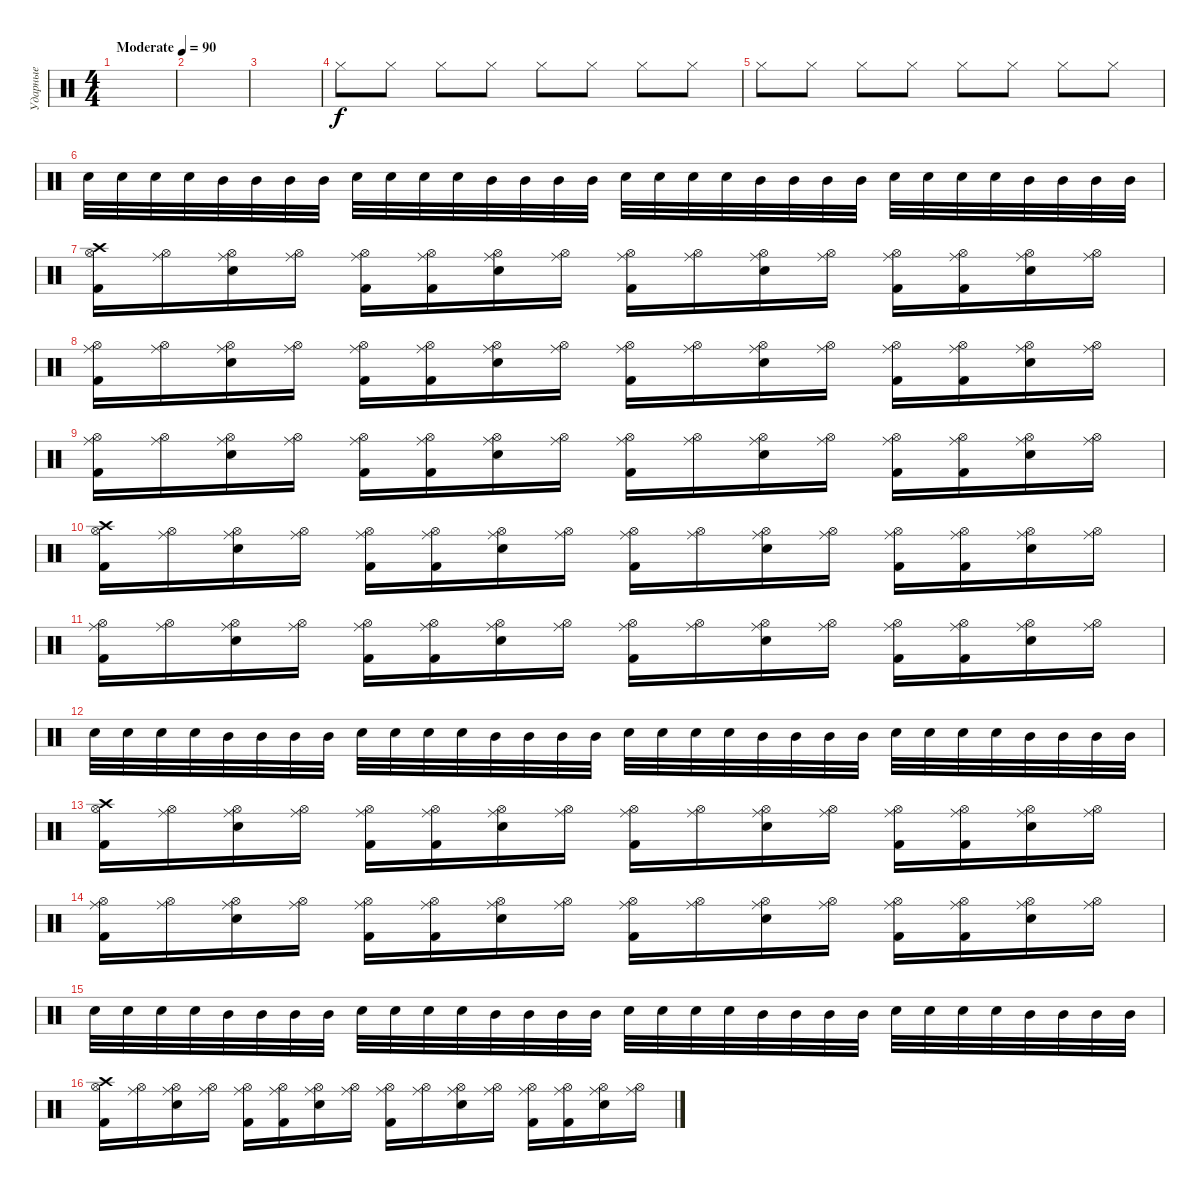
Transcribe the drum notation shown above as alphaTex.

\track ("Ударные" "Ударные") {instrument percussion}
\staff {score}
\articulation defaults
\ts (4 4)
\tempo (90 "Moderate")
\clef neutral
\ks c
|
|
|
"Hi-Hat (closed)".8 "Hi-Hat (closed)".8 "Hi-Hat (closed)".8 "Hi-Hat (closed)".8 "Hi-Hat (closed)".8 "Hi-Hat (closed)".8 "Hi-Hat (closed)".8 "Hi-Hat (closed)".8 |
"Hi-Hat (closed)".8 "Hi-Hat (closed)".8 "Hi-Hat (closed)".8 "Hi-Hat (closed)".8 "Hi-Hat (closed)".8 "Hi-Hat (closed)".8 "Hi-Hat (closed)".8 "Hi-Hat (closed)".8 |
"Electric Snare (hit)".32 "Electric Snare (hit)".32 "Electric Snare (hit)".32 "Electric Snare (hit)".32 "Mid Tom (hit)".32 "Mid Tom (hit)".32 "Mid Tom (hit)".32 "Mid Tom (hit)".32 "Electric Snare (hit)".32 "Electric Snare (hit)".32 "Electric Snare (hit)".32 "Electric Snare (hit)".32 "Mid Tom (hit)".32 "Mid Tom (hit)".32 "Mid Tom (hit)".32 "Mid Tom (hit)".32 "Electric Snare (hit)".32 "Electric Snare (hit)".32 "Electric Snare (hit)".32 "Electric Snare (hit)".32 "Mid Tom (hit)".32 "Mid Tom (hit)".32 "Mid Tom (hit)".32 "Mid Tom (hit)".32 "Electric Snare (hit)".32 "Electric Snare (hit)".32 "Electric Snare (hit)".32 "Electric Snare (hit)".32 "Mid Tom (hit)".32 "Mid Tom (hit)".32 "Mid Tom (hit)".32 "Mid Tom (hit)".32 |
("Kick (hit) 2" "Crash high (hit)" "Hi-Hat (open)").16 ("Ride (middle)" "Hi-Hat (open)").16 ("Electric Snare (hit)" "Ride (middle)" "Hi-Hat (open)").16 ("Ride (middle)" "Hi-Hat (open)").16 ("Kick (hit) 2" "Ride (middle)" "Hi-Hat (open)").16 ("Kick (hit) 2" "Ride (middle)" "Hi-Hat (open)").16 ("Electric Snare (hit)" "Ride (middle)" "Hi-Hat (open)").16 ("Ride (middle)" "Hi-Hat (open)").16 ("Kick (hit) 2" "Ride (middle)" "Hi-Hat (open)").16 ("Ride (middle)" "Hi-Hat (open)").16 ("Electric Snare (hit)" "Ride (middle)" "Hi-Hat (open)").16 ("Ride (middle)" "Hi-Hat (open)").16 ("Kick (hit) 2" "Ride (middle)" "Hi-Hat (open)").16 ("Kick (hit) 2" "Ride (middle)" "Hi-Hat (open)").16 ("Electric Snare (hit)" "Ride (middle)" "Hi-Hat (open)").16 ("Ride (middle)" "Hi-Hat (open)").16 |
("Kick (hit) 2" "Ride (middle)" "Hi-Hat (open)").16 ("Ride (middle)" "Hi-Hat (open)").16 ("Electric Snare (hit)" "Ride (middle)" "Hi-Hat (open)").16 ("Ride (middle)" "Hi-Hat (open)").16 ("Kick (hit) 2" "Ride (middle)" "Hi-Hat (open)").16 ("Kick (hit) 2" "Ride (middle)" "Hi-Hat (open)").16 ("Electric Snare (hit)" "Ride (middle)" "Hi-Hat (open)").16 ("Ride (middle)" "Hi-Hat (open)").16 ("Kick (hit) 2" "Ride (middle)" "Hi-Hat (open)").16 ("Ride (middle)" "Hi-Hat (open)").16 ("Electric Snare (hit)" "Ride (middle)" "Hi-Hat (open)").16 ("Ride (middle)" "Hi-Hat (open)").16 ("Kick (hit) 2" "Ride (middle)" "Hi-Hat (open)").16 ("Kick (hit) 2" "Ride (middle)" "Hi-Hat (open)").16 ("Electric Snare (hit)" "Ride (middle)" "Hi-Hat (open)").16 ("Ride (middle)" "Hi-Hat (open)").16 |
("Kick (hit) 2" "Ride (middle)" "Hi-Hat (open)").16 ("Ride (middle)" "Hi-Hat (open)").16 ("Electric Snare (hit)" "Ride (middle)" "Hi-Hat (open)").16 ("Ride (middle)" "Hi-Hat (open)").16 ("Kick (hit) 2" "Ride (middle)" "Hi-Hat (open)").16 ("Kick (hit) 2" "Ride (middle)" "Hi-Hat (open)").16 ("Electric Snare (hit)" "Ride (middle)" "Hi-Hat (open)").16 ("Ride (middle)" "Hi-Hat (open)").16 ("Kick (hit) 2" "Ride (middle)" "Hi-Hat (open)").16 ("Ride (middle)" "Hi-Hat (open)").16 ("Electric Snare (hit)" "Ride (middle)" "Hi-Hat (open)").16 ("Ride (middle)" "Hi-Hat (open)").16 ("Kick (hit) 2" "Ride (middle)" "Hi-Hat (open)").16 ("Kick (hit) 2" "Ride (middle)" "Hi-Hat (open)").16 ("Electric Snare (hit)" "Ride (middle)" "Hi-Hat (open)").16 ("Ride (middle)" "Hi-Hat (open)").16 |
("Kick (hit) 2" "Crash high (hit)" "Hi-Hat (open)").16 ("Ride (middle)" "Hi-Hat (open)").16 ("Electric Snare (hit)" "Ride (middle)" "Hi-Hat (open)").16 ("Ride (middle)" "Hi-Hat (open)").16 ("Kick (hit) 2" "Ride (middle)" "Hi-Hat (open)").16 ("Kick (hit) 2" "Ride (middle)" "Hi-Hat (open)").16 ("Electric Snare (hit)" "Ride (middle)" "Hi-Hat (open)").16 ("Ride (middle)" "Hi-Hat (open)").16 ("Kick (hit) 2" "Ride (middle)" "Hi-Hat (open)").16 ("Ride (middle)" "Hi-Hat (open)").16 ("Electric Snare (hit)" "Ride (middle)" "Hi-Hat (open)").16 ("Ride (middle)" "Hi-Hat (open)").16 ("Kick (hit) 2" "Ride (middle)" "Hi-Hat (open)").16 ("Kick (hit) 2" "Ride (middle)" "Hi-Hat (open)").16 ("Electric Snare (hit)" "Ride (middle)" "Hi-Hat (open)").16 ("Ride (middle)" "Hi-Hat (open)").16 |
("Kick (hit) 2" "Ride (middle)" "Hi-Hat (open)").16 ("Ride (middle)" "Hi-Hat (open)").16 ("Electric Snare (hit)" "Ride (middle)" "Hi-Hat (open)").16 ("Ride (middle)" "Hi-Hat (open)").16 ("Kick (hit) 2" "Ride (middle)" "Hi-Hat (open)").16 ("Kick (hit) 2" "Ride (middle)" "Hi-Hat (open)").16 ("Electric Snare (hit)" "Ride (middle)" "Hi-Hat (open)").16 ("Ride (middle)" "Hi-Hat (open)").16 ("Kick (hit) 2" "Ride (middle)" "Hi-Hat (open)").16 ("Ride (middle)" "Hi-Hat (open)").16 ("Electric Snare (hit)" "Ride (middle)" "Hi-Hat (open)").16 ("Ride (middle)" "Hi-Hat (open)").16 ("Kick (hit) 2" "Ride (middle)" "Hi-Hat (open)").16 ("Kick (hit) 2" "Ride (middle)" "Hi-Hat (open)").16 ("Electric Snare (hit)" "Ride (middle)" "Hi-Hat (open)").16 ("Ride (middle)" "Hi-Hat (open)").16 |
"Electric Snare (hit)".32 "Electric Snare (hit)".32 "Electric Snare (hit)".32 "Electric Snare (hit)".32 "Mid Tom (hit)".32 "Mid Tom (hit)".32 "Mid Tom (hit)".32 "Mid Tom (hit)".32 "Electric Snare (hit)".32 "Electric Snare (hit)".32 "Electric Snare (hit)".32 "Electric Snare (hit)".32 "Mid Tom (hit)".32 "Mid Tom (hit)".32 "Mid Tom (hit)".32 "Mid Tom (hit)".32 "Electric Snare (hit)".32 "Electric Snare (hit)".32 "Electric Snare (hit)".32 "Electric Snare (hit)".32 "Mid Tom (hit)".32 "Mid Tom (hit)".32 "Mid Tom (hit)".32 "Mid Tom (hit)".32 "Electric Snare (hit)".32 "Electric Snare (hit)".32 "Electric Snare (hit)".32 "Electric Snare (hit)".32 "Mid Tom (hit)".32 "Mid Tom (hit)".32 "Mid Tom (hit)".32 "Mid Tom (hit)".32 |
("Kick (hit) 2" "Crash high (hit)" "Hi-Hat (open)").16 ("Ride (middle)" "Hi-Hat (open)").16 ("Electric Snare (hit)" "Ride (middle)" "Hi-Hat (open)").16 ("Ride (middle)" "Hi-Hat (open)").16 ("Kick (hit) 2" "Ride (middle)" "Hi-Hat (open)").16 ("Kick (hit) 2" "Ride (middle)" "Hi-Hat (open)").16 ("Electric Snare (hit)" "Ride (middle)" "Hi-Hat (open)").16 ("Ride (middle)" "Hi-Hat (open)").16 ("Kick (hit) 2" "Ride (middle)" "Hi-Hat (open)").16 ("Ride (middle)" "Hi-Hat (open)").16 ("Electric Snare (hit)" "Ride (middle)" "Hi-Hat (open)").16 ("Ride (middle)" "Hi-Hat (open)").16 ("Kick (hit) 2" "Ride (middle)" "Hi-Hat (open)").16 ("Kick (hit) 2" "Ride (middle)" "Hi-Hat (open)").16 ("Electric Snare (hit)" "Ride (middle)" "Hi-Hat (open)").16 ("Ride (middle)" "Hi-Hat (open)").16 |
("Kick (hit) 2" "Ride (middle)" "Hi-Hat (open)").16 ("Ride (middle)" "Hi-Hat (open)").16 ("Electric Snare (hit)" "Ride (middle)" "Hi-Hat (open)").16 ("Ride (middle)" "Hi-Hat (open)").16 ("Kick (hit) 2" "Ride (middle)" "Hi-Hat (open)").16 ("Kick (hit) 2" "Ride (middle)" "Hi-Hat (open)").16 ("Electric Snare (hit)" "Ride (middle)" "Hi-Hat (open)").16 ("Ride (middle)" "Hi-Hat (open)").16 ("Kick (hit) 2" "Ride (middle)" "Hi-Hat (open)").16 ("Ride (middle)" "Hi-Hat (open)").16 ("Electric Snare (hit)" "Ride (middle)" "Hi-Hat (open)").16 ("Ride (middle)" "Hi-Hat (open)").16 ("Kick (hit) 2" "Ride (middle)" "Hi-Hat (open)").16 ("Kick (hit) 2" "Ride (middle)" "Hi-Hat (open)").16 ("Electric Snare (hit)" "Ride (middle)" "Hi-Hat (open)").16 ("Ride (middle)" "Hi-Hat (open)").16 |
"Electric Snare (hit)".32 "Electric Snare (hit)".32 "Electric Snare (hit)".32 "Electric Snare (hit)".32 "Mid Tom (hit)".32 "Mid Tom (hit)".32 "Mid Tom (hit)".32 "Mid Tom (hit)".32 "Electric Snare (hit)".32 "Electric Snare (hit)".32 "Electric Snare (hit)".32 "Electric Snare (hit)".32 "Mid Tom (hit)".32 "Mid Tom (hit)".32 "Mid Tom (hit)".32 "Mid Tom (hit)".32 "Electric Snare (hit)".32 "Electric Snare (hit)".32 "Electric Snare (hit)".32 "Electric Snare (hit)".32 "Mid Tom (hit)".32 "Mid Tom (hit)".32 "Mid Tom (hit)".32 "Mid Tom (hit)".32 "Electric Snare (hit)".32 "Electric Snare (hit)".32 "Electric Snare (hit)".32 "Electric Snare (hit)".32 "Mid Tom (hit)".32 "Mid Tom (hit)".32 "Mid Tom (hit)".32 "Mid Tom (hit)".32 |
("Kick (hit) 2" "Crash high (hit)" "Hi-Hat (open)").16 ("Ride (middle)" "Hi-Hat (open)").16 ("Electric Snare (hit)" "Ride (middle)" "Hi-Hat (open)").16 ("Ride (middle)" "Hi-Hat (open)").16 ("Kick (hit) 2" "Ride (middle)" "Hi-Hat (open)").16 ("Kick (hit) 2" "Ride (middle)" "Hi-Hat (open)").16 ("Electric Snare (hit)" "Ride (middle)" "Hi-Hat (open)").16 ("Ride (middle)" "Hi-Hat (open)").16 ("Kick (hit) 2" "Ride (middle)" "Hi-Hat (open)").16 ("Ride (middle)" "Hi-Hat (open)").16 ("Electric Snare (hit)" "Ride (middle)" "Hi-Hat (open)").16 ("Ride (middle)" "Hi-Hat (open)").16 ("Kick (hit) 2" "Ride (middle)" "Hi-Hat (open)").16 ("Kick (hit) 2" "Ride (middle)" "Hi-Hat (open)").16 ("Electric Snare (hit)" "Ride (middle)" "Hi-Hat (open)").16 ("Ride (middle)" "Hi-Hat (open)").16
